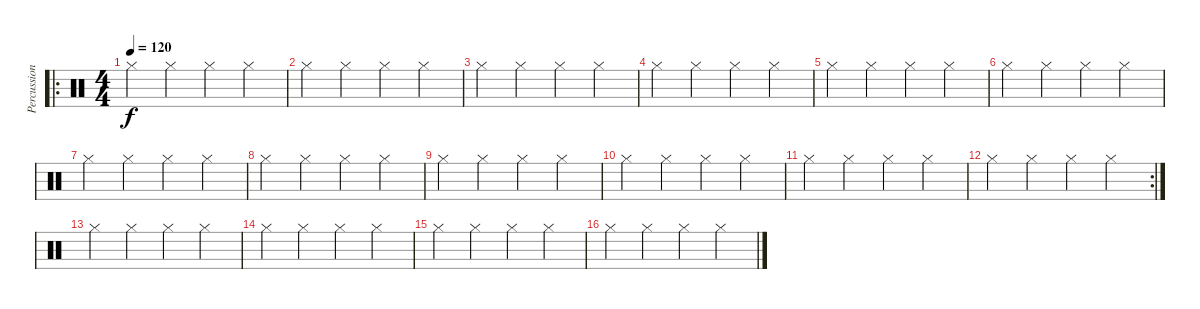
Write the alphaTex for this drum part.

\track ("Percussioni" "Percussion") {instrument percussion}
\staff {score}
\articulation defaults
\ro
\ts (4 4)
\tempo 120
\clef neutral
\ks c "Hi-Hat (closed)".4{dy f} "Hi-Hat (closed)".4 "Hi-Hat (closed)".4 "Hi-Hat (closed)".4
|
"Hi-Hat (closed)".4 "Hi-Hat (closed)".4 "Hi-Hat (closed)".4 "Hi-Hat (closed)".4 |
"Hi-Hat (closed)".4 "Hi-Hat (closed)".4 "Hi-Hat (closed)".4 "Hi-Hat (closed)".4 |
"Hi-Hat (closed)".4 "Hi-Hat (closed)".4 "Hi-Hat (closed)".4 "Hi-Hat (closed)".4 |
"Hi-Hat (closed)".4 "Hi-Hat (closed)".4 "Hi-Hat (closed)".4 "Hi-Hat (closed)".4 |
"Hi-Hat (closed)".4 "Hi-Hat (closed)".4 "Hi-Hat (closed)".4 "Hi-Hat (closed)".4 |
"Hi-Hat (closed)".4 "Hi-Hat (closed)".4 "Hi-Hat (closed)".4 "Hi-Hat (closed)".4 |
"Hi-Hat (closed)".4 "Hi-Hat (closed)".4 "Hi-Hat (closed)".4 "Hi-Hat (closed)".4 |
"Hi-Hat (closed)".4 "Hi-Hat (closed)".4 "Hi-Hat (closed)".4 "Hi-Hat (closed)".4 |
"Hi-Hat (closed)".4 "Hi-Hat (closed)".4 "Hi-Hat (closed)".4 "Hi-Hat (closed)".4 |
"Hi-Hat (closed)".4 "Hi-Hat (closed)".4 "Hi-Hat (closed)".4 "Hi-Hat (closed)".4 |
\rc 2 "Hi-Hat (closed)".4 "Hi-Hat (closed)".4 "Hi-Hat (closed)".4 "Hi-Hat (closed)".4
|
"Hi-Hat (closed)".4 "Hi-Hat (closed)".4 "Hi-Hat (closed)".4 "Hi-Hat (closed)".4 |
"Hi-Hat (closed)".4 "Hi-Hat (closed)".4 "Hi-Hat (closed)".4 "Hi-Hat (closed)".4 |
"Hi-Hat (closed)".4 "Hi-Hat (closed)".4 "Hi-Hat (closed)".4 "Hi-Hat (closed)".4 |
"Hi-Hat (closed)".4 "Hi-Hat (closed)".4 "Hi-Hat (closed)".4 "Hi-Hat (closed)".4
